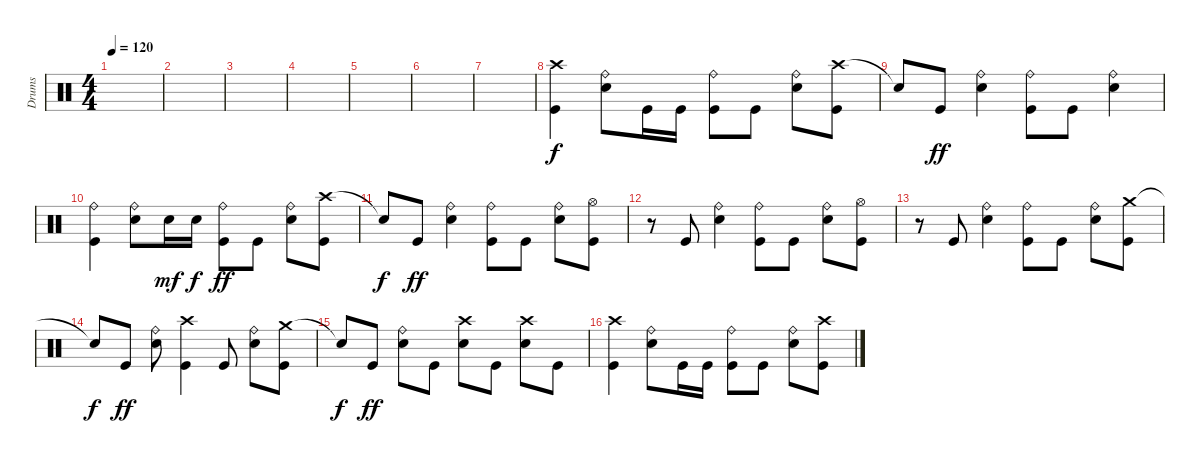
\track ("Drums" "Drums") {instrument percussion}
\staff {score}
\articulation defaults
\ts (4 4)
\tempo 120
\clef neutral
\ks c
|
|
|
|
|
|
|
("Crash high (hit)" "Kick (hit)").4 ("Ride (bell)" "Electric Snare (hit)").8 "Kick (hit)".16 "Kick (hit)".16 ("Ride (bell)" "Kick (hit)").8 "Kick (hit)".8 ("Ride (bell)" "Electric Snare (hit)").8 ("Crash high (hit)" "Kick (hit)").8 |
"Snare (hit)"{t}.8{dy f} "Kick (hit)".8{dy ff} ("Ride (bell)" "Electric Snare (hit)").4 ("Ride (bell)" "Kick (hit)").8 "Kick (hit)".8 ("Ride (bell)" "Electric Snare (hit)").4 |
("Ride (bell)" "Kick (hit)").4 ("Ride (bell)" "Electric Snare (hit)").8 "Electric Snare (hit)".16{dy mf} "Electric Snare (hit)".16{dy f} ("Ride (bell)" "Kick (hit)").8{dy ff} "Kick (hit)".8 ("Ride (bell)" "Electric Snare (hit)").8 ("Crash high (hit)" "Kick (hit)").8 |
"Snare (hit)"{t}.8{dy f} "Kick (hit)".8{dy ff} ("Ride (bell)" "Electric Snare (hit)").4 ("Ride (bell)" "Kick (hit)").8 "Kick (hit)".8 ("Ride (bell)" "Electric Snare (hit)").8 ("Hi-Hat (open)" "Kick (hit)").8 |
r.8 "Kick (hit)".8 ("Ride (bell)" "Electric Snare (hit)").4 ("Ride (bell)" "Kick (hit)").8 "Kick (hit)".8 ("Ride (bell)" "Electric Snare (hit)").8 ("Hi-Hat (open)" "Kick (hit)").8 |
r.8 "Kick (hit)".8 ("Ride (bell)" "Electric Snare (hit)").4 ("Ride (bell)" "Kick (hit)").8 "Kick (hit)".8 ("Ride (bell)" "Electric Snare (hit)").8 ("Crash medium (hit)" "Kick (hit)").8 |
"Snare (hit)"{t}.8{dy f} "Kick (hit)".8{dy ff} ("Ride (bell)" "Electric Snare (hit)").8 ("Crash high (hit)" "Kick (hit)").4 "Kick (hit)".8 ("Ride (bell)" "Electric Snare (hit)").8 ("Crash medium (hit)" "Kick (hit)").8 |
"Snare (hit)"{t}.8{dy f} "Kick (hit)".8{dy ff} ("Ride (bell)" "Electric Snare (hit)").8 "Kick (hit)".8 ("Crash high (hit)" "Electric Snare (hit)").8 "Kick (hit)".8 ("Crash high (hit)" "Electric Snare (hit)").8 "Kick (hit)".8 |
("Crash high (hit)" "Kick (hit)").4 ("Ride (bell)" "Electric Snare (hit)").8 "Kick (hit)".16 "Kick (hit)".16 ("Ride (bell)" "Kick (hit)").8 "Kick (hit)".8 ("Ride (bell)" "Electric Snare (hit)").8 ("Crash high (hit)" "Kick (hit)").8
